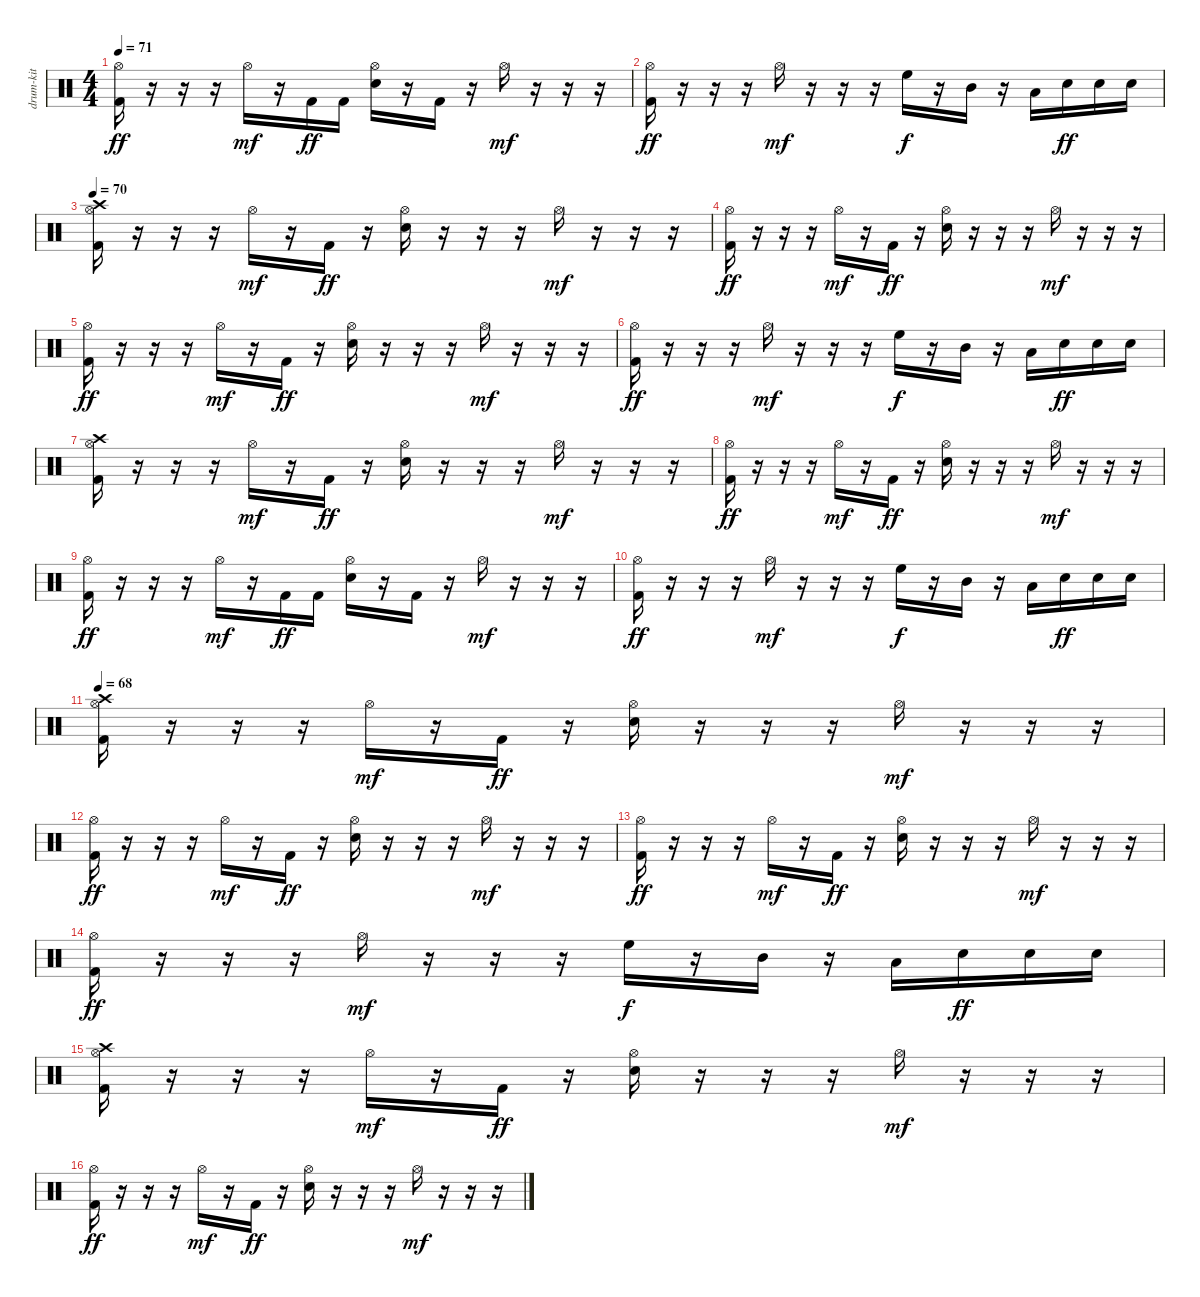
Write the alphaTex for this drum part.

\track ("drum-kit" "drum-kit") {instrument percussion}
\staff {score}
\articulation defaults
\ts (4 4)
\tempo 71
\clef neutral
\ks c
("Hi-Hat (open)" "Kick (hit) 2").16{dy ff} r.16 r.16 r.16 "Hi-Hat (open)".16{dy mf} r.16 "Kick (hit) 2".16{dy ff} "Kick (hit) 2".16 ("Hi-Hat (open)" "Snare (hit) 2").16 r.16 "Kick (hit) 2".16 r.16 "Hi-Hat (open)".16{dy mf} r.16 r.16 r.16 |
("Hi-Hat (open)" "Kick (hit) 2").16{dy ff} r.16 r.16 r.16 "Hi-Hat (open)".16{dy mf} r.16 r.16 r.16 "High Floor Tom (hit)".16{dy f} r.16 "Mid Tom (hit)".16 r.16 "Low Tom (hit)".16 "Snare (hit) 2".16{dy ff} "Snare (hit) 2".16 "Snare (hit) 2".16 |
\tempo 70
("Crash high (hit)" "Hi-Hat (open)" "Kick (hit) 2").16 r.16 r.16 r.16 "Hi-Hat (open)".16{dy mf} r.16 "Kick (hit) 2".16{dy ff} r.16 ("Hi-Hat (open)" "Snare (hit) 2").16 r.16 r.16 r.16 "Hi-Hat (open)".16{dy mf} r.16 r.16 r.16 |
("Hi-Hat (open)" "Kick (hit) 2").16{dy ff} r.16 r.16 r.16 "Hi-Hat (open)".16{dy mf} r.16 "Kick (hit) 2".16{dy ff} r.16 ("Hi-Hat (open)" "Snare (hit) 2").16 r.16 r.16 r.16 "Hi-Hat (open)".16{dy mf} r.16 r.16 r.16 |
("Hi-Hat (open)" "Kick (hit) 2").16{dy ff} r.16 r.16 r.16 "Hi-Hat (open)".16{dy mf} r.16 "Kick (hit) 2".16{dy ff} r.16 ("Hi-Hat (open)" "Snare (hit) 2").16 r.16 r.16 r.16 "Hi-Hat (open)".16{dy mf} r.16 r.16 r.16 |
("Hi-Hat (open)" "Kick (hit) 2").16{dy ff} r.16 r.16 r.16 "Hi-Hat (open)".16{dy mf} r.16 r.16 r.16 "High Floor Tom (hit)".16{dy f} r.16 "Mid Tom (hit)".16 r.16 "Low Tom (hit)".16 "Snare (hit) 2".16{dy ff} "Snare (hit) 2".16 "Snare (hit) 2".16 |
("Crash high (hit)" "Hi-Hat (open)" "Kick (hit) 2").16 r.16 r.16 r.16 "Hi-Hat (open)".16{dy mf} r.16 "Kick (hit) 2".16{dy ff} r.16 ("Hi-Hat (open)" "Snare (hit) 2").16 r.16 r.16 r.16 "Hi-Hat (open)".16{dy mf} r.16 r.16 r.16 |
("Hi-Hat (open)" "Kick (hit) 2").16{dy ff} r.16 r.16 r.16 "Hi-Hat (open)".16{dy mf} r.16 "Kick (hit) 2".16{dy ff} r.16 ("Hi-Hat (open)" "Snare (hit) 2").16 r.16 r.16 r.16 "Hi-Hat (open)".16{dy mf} r.16 r.16 r.16 |
("Hi-Hat (open)" "Kick (hit) 2").16{dy ff} r.16 r.16 r.16 "Hi-Hat (open)".16{dy mf} r.16 "Kick (hit) 2".16{dy ff} "Kick (hit) 2".16 ("Hi-Hat (open)" "Snare (hit) 2").16 r.16 "Kick (hit) 2".16 r.16 "Hi-Hat (open)".16{dy mf} r.16 r.16 r.16 |
("Hi-Hat (open)" "Kick (hit) 2").16{dy ff} r.16 r.16 r.16 "Hi-Hat (open)".16{dy mf} r.16 r.16 r.16 "High Floor Tom (hit)".16{dy f} r.16 "Mid Tom (hit)".16 r.16 "Low Tom (hit)".16 "Snare (hit) 2".16{dy ff} "Snare (hit) 2".16 "Snare (hit) 2".16 |
\tempo 68
("Crash high (hit)" "Hi-Hat (open)" "Kick (hit) 2").16 r.16 r.16 r.16 "Hi-Hat (open)".16{dy mf} r.16 "Kick (hit) 2".16{dy ff} r.16 ("Hi-Hat (open)" "Snare (hit) 2").16 r.16 r.16 r.16 "Hi-Hat (open)".16{dy mf} r.16 r.16 r.16 |
("Hi-Hat (open)" "Kick (hit) 2").16{dy ff} r.16 r.16 r.16 "Hi-Hat (open)".16{dy mf} r.16 "Kick (hit) 2".16{dy ff} r.16 ("Hi-Hat (open)" "Snare (hit) 2").16 r.16 r.16 r.16 "Hi-Hat (open)".16{dy mf} r.16 r.16 r.16 |
("Hi-Hat (open)" "Kick (hit) 2").16{dy ff} r.16 r.16 r.16 "Hi-Hat (open)".16{dy mf} r.16 "Kick (hit) 2".16{dy ff} r.16 ("Hi-Hat (open)" "Snare (hit) 2").16 r.16 r.16 r.16 "Hi-Hat (open)".16{dy mf} r.16 r.16 r.16 |
("Hi-Hat (open)" "Kick (hit) 2").16{dy ff} r.16 r.16 r.16 "Hi-Hat (open)".16{dy mf} r.16 r.16 r.16 "High Floor Tom (hit)".16{dy f} r.16 "Mid Tom (hit)".16 r.16 "Low Tom (hit)".16 "Snare (hit) 2".16{dy ff} "Snare (hit) 2".16 "Snare (hit) 2".16 |
("Crash high (hit)" "Hi-Hat (open)" "Kick (hit) 2").16 r.16 r.16 r.16 "Hi-Hat (open)".16{dy mf} r.16 "Kick (hit) 2".16{dy ff} r.16 ("Hi-Hat (open)" "Snare (hit) 2").16 r.16 r.16 r.16 "Hi-Hat (open)".16{dy mf} r.16 r.16 r.16 |
("Hi-Hat (open)" "Kick (hit) 2").16{dy ff} r.16 r.16 r.16 "Hi-Hat (open)".16{dy mf} r.16 "Kick (hit) 2".16{dy ff} r.16 ("Hi-Hat (open)" "Snare (hit) 2").16 r.16 r.16 r.16 "Hi-Hat (open)".16{dy mf} r.16 r.16 r.16
